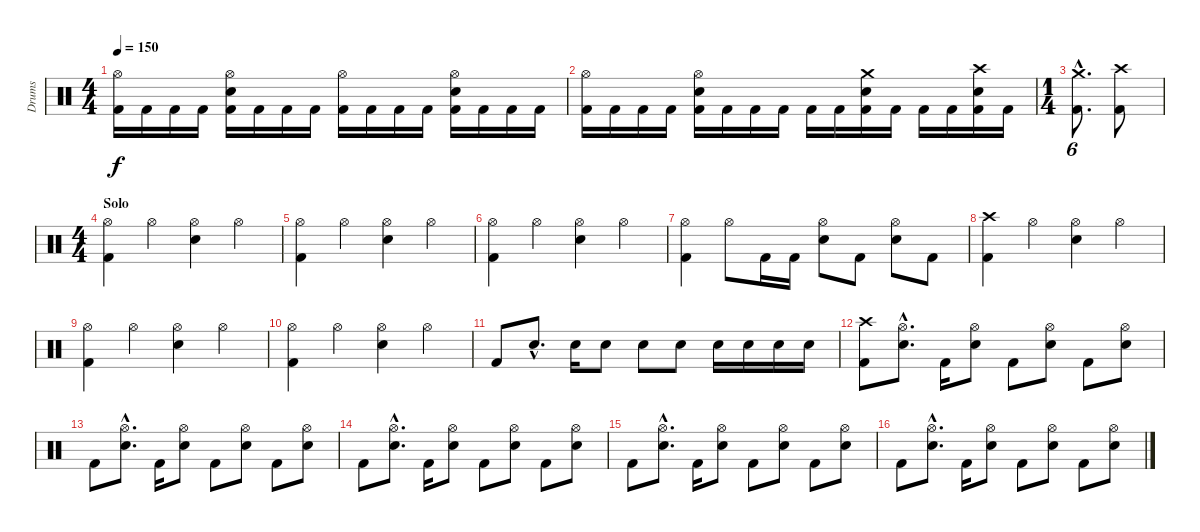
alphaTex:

\track ("Drums" "Drums") {instrument percussion}
\staff {score}
\articulation defaults
\ts (4 4)
\tempo 150
\clef neutral
\ks c
("Hi-Hat (open)" "Kick (hit) 2").16{dy f} "Kick (hit) 2".16 "Kick (hit) 2".16 "Kick (hit) 2".16 ("Hi-Hat (open)" "Snare (hit) 2" "Kick (hit) 2").16 "Kick (hit) 2".16 "Kick (hit) 2".16 "Kick (hit) 2".16 ("Hi-Hat (open)" "Kick (hit) 2").16 "Kick (hit) 2".16 "Kick (hit) 2".16 "Kick (hit) 2".16 ("Hi-Hat (open)" "Snare (hit) 2" "Kick (hit) 2").16 "Kick (hit) 2".16 "Kick (hit) 2".16 "Kick (hit) 2".16 |
("Hi-Hat (open)" "Kick (hit) 2").16 "Kick (hit) 2".16 "Kick (hit) 2".16 "Kick (hit) 2".16 ("Hi-Hat (open)" "Snare (hit) 2" "Kick (hit) 2").16 "Kick (hit) 2".16 "Kick (hit) 2".16 "Kick (hit) 2".16 "Kick (hit) 2".16 "Kick (hit) 2".16 ("Crash medium (hit)" "Snare (hit) 2" "Kick (hit) 2").16 "Kick (hit) 2".16 "Kick (hit) 2".16 "Kick (hit) 2".16 ("Crash high (hit)" "Snare (hit) 2" "Kick (hit) 2").16 "Kick (hit) 2".16 |
\ts (1 4)
("Crash medium (hit)"{hac} "Kick (hit) 2"{hac}).8{d tu (6 4)} ("Crash high (hit)" "Kick (hit) 2").8 |
\ts (4 4)
\section ("" "Solo")
("Hi-Hat (open)" "Kick (hit) 2").4 "Hi-Hat (open)".4 ("Hi-Hat (open)" "Snare (hit) 2").4 "Hi-Hat (open)".4 |
("Hi-Hat (open)" "Kick (hit) 2").4 "Hi-Hat (open)".4 ("Hi-Hat (open)" "Snare (hit) 2").4 "Hi-Hat (open)".4 |
("Hi-Hat (open)" "Kick (hit) 2").4 "Hi-Hat (open)".4 ("Hi-Hat (open)" "Snare (hit) 2").4 "Hi-Hat (open)".4 |
("Hi-Hat (open)" "Kick (hit) 2").4 "Hi-Hat (open)".8 "Kick (hit) 2".16 "Kick (hit) 2".16 ("Hi-Hat (open)" "Snare (hit) 2").8 "Kick (hit) 2".8 ("Hi-Hat (open)" "Snare (hit) 2").8 "Kick (hit) 2".8 |
("Crash high (hit)" "Kick (hit) 2").4 "Hi-Hat (open)".4 ("Hi-Hat (open)" "Snare (hit) 2").4 "Hi-Hat (open)".4 |
("Hi-Hat (open)" "Kick (hit) 2").4 "Hi-Hat (open)".4 ("Hi-Hat (open)" "Snare (hit) 2").4 "Hi-Hat (open)".4 |
("Hi-Hat (open)" "Kick (hit) 2").4 "Hi-Hat (open)".4 ("Hi-Hat (open)" "Snare (hit) 2").4 "Hi-Hat (open)".4 |
"Kick (hit) 2".8 "Snare (hit) 2"{hac}.8{d} "Snare (hit) 2".16 "Snare (hit) 2".8 "Snare (hit) 2".8 "Snare (hit) 2".8 "Snare (hit) 2".16 "Snare (hit) 2".16 "Snare (hit) 2".16 "Snare (hit) 2".16 |
("Crash high (hit)" "Kick (hit) 2").8 ("Hi-Hat (open)"{hac} "Snare (hit) 2"{hac}).8{d} "Kick (hit) 2".16 ("Hi-Hat (open)" "Snare (hit) 2").8 "Kick (hit) 2".8 ("Hi-Hat (open)" "Snare (hit) 2").8 "Kick (hit) 2".8 ("Hi-Hat (open)" "Snare (hit) 2").8 |
"Kick (hit) 2".8 ("Hi-Hat (open)"{hac} "Snare (hit) 2"{hac}).8{d} "Kick (hit) 2".16 ("Hi-Hat (open)" "Snare (hit) 2").8 "Kick (hit) 2".8 ("Hi-Hat (open)" "Snare (hit) 2").8 "Kick (hit) 2".8 ("Hi-Hat (open)" "Snare (hit) 2").8 |
"Kick (hit) 2".8 ("Hi-Hat (open)"{hac} "Snare (hit) 2"{hac}).8{d} "Kick (hit) 2".16 ("Hi-Hat (open)" "Snare (hit) 2").8 "Kick (hit) 2".8 ("Hi-Hat (open)" "Snare (hit) 2").8 "Kick (hit) 2".8 ("Hi-Hat (open)" "Snare (hit) 2").8 |
"Kick (hit) 2".8 ("Hi-Hat (open)"{hac} "Snare (hit) 2"{hac}).8{d} "Kick (hit) 2".16 ("Hi-Hat (open)" "Snare (hit) 2").8 "Kick (hit) 2".8 ("Hi-Hat (open)" "Snare (hit) 2").8 "Kick (hit) 2".8 ("Hi-Hat (open)" "Snare (hit) 2").8 |
"Kick (hit) 2".8 ("Hi-Hat (open)"{hac} "Snare (hit) 2"{hac}).8{d} "Kick (hit) 2".16 ("Hi-Hat (open)" "Snare (hit) 2").8 "Kick (hit) 2".8 ("Hi-Hat (open)" "Snare (hit) 2").8 "Kick (hit) 2".8 ("Hi-Hat (open)" "Snare (hit) 2").8
